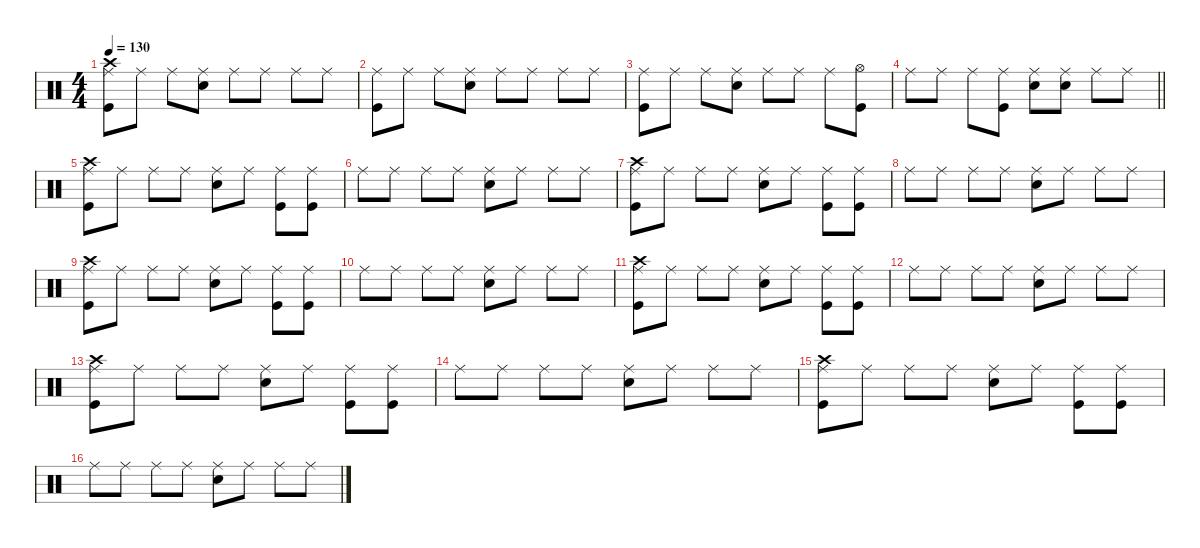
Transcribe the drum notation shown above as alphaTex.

\defaultSystemsLayout 4
\hideDynamics
\bracketExtendMode nobrackets
\singleTrackTrackNamePolicy hidden
\multiTrackTrackNamePolicy hidden
\firstSystemTrackNameMode fullname
\firstSystemTrackNameOrientation horizontal
\otherSystemsTrackNameOrientation horizontal
\track ("Percussion" "drm.") {defaultSystemsLayout 4 instrument percussion}
\staff {score}
\articulation defaults
\ts (4 4)
\tempo 130
\clef neutral
\ks c
("Crash high (hit)" "Ride (middle)" "Kick (hit)").8{dy f beam Down} "Ride (middle)".8{beam Down} "Ride (middle)".8{beam Down} ("Ride (middle)" "Snare (hit) 2").8{beam Down} "Ride (middle)".8{beam Down} "Ride (middle)".8{beam Down} "Ride (middle)".8{beam Down} "Ride (middle)".8{beam Down} |
("Ride (middle)" "Kick (hit)").8{beam Down} "Ride (middle)".8{beam Down} "Ride (middle)".8{beam Down} ("Ride (middle)" "Snare (hit) 2").8{beam Down} "Ride (middle)".8{beam Down} "Ride (middle)".8{beam Down} "Ride (middle)".8{beam Down} "Ride (middle)".8{beam Down} |
("Ride (middle)" "Kick (hit)").8{beam Down} "Ride (middle)".8{beam Down} "Ride (middle)".8{beam Down} ("Ride (middle)" "Snare (hit) 2").8{beam Down} "Ride (middle)".8{beam Down} "Ride (middle)".8{beam Down} "Ride (middle)".8{beam Down} ("Kick (hit)" "Hi-Hat (open)").8{beam Down} |
\barLineRight lightlight "Ride (middle)".8{dy mf beam Down} "Ride (middle)".8{dy f beam Down} "Ride (middle)".8{beam Down}
("Ride (middle)" "Kick (hit)").8{beam Down} ("Ride (middle)" "Snare (hit) 2").8{beam Down} ("Ride (middle)" "Snare (hit) 2").8{beam Down} "Ride (middle)".8{beam Down} "Ride (middle)".8{beam Down} |
("Crash high (hit)" "Ride (middle)" "Kick (hit)").8{beam Down} "Ride (middle)".8{beam Down} "Ride (middle)".8{beam Down} "Ride (middle)".8{beam Down} ("Ride (middle)" "Snare (hit) 2").8{beam Down} "Ride (middle)".8{beam Down} ("Ride (middle)" "Kick (hit)").8{beam Down} ("Ride (middle)" "Kick (hit)").8{beam Down} |
"Ride (middle)".8{beam Down} "Ride (middle)".8{beam Down} "Ride (middle)".8{beam Down} "Ride (middle)".8{beam Down} ("Ride (middle)" "Snare (hit) 2").8{beam Down} "Ride (middle)".8{beam Down} "Ride (middle)".8{beam Down} "Ride (middle)".8{beam Down} |
("Crash high (hit)" "Ride (middle)" "Kick (hit)").8{beam Down} "Ride (middle)".8{beam Down} "Ride (middle)".8{beam Down} "Ride (middle)".8{beam Down} ("Ride (middle)" "Snare (hit) 2").8{beam Down} "Ride (middle)".8{beam Down} ("Ride (middle)" "Kick (hit)").8{beam Down} ("Ride (middle)" "Kick (hit)").8{beam Down} |
"Ride (middle)".8{beam Down} "Ride (middle)".8{beam Down} "Ride (middle)".8{beam Down} "Ride (middle)".8{beam Down} ("Ride (middle)" "Snare (hit) 2").8{beam Down} "Ride (middle)".8{beam Down} "Ride (middle)".8{beam Down} "Ride (middle)".8{beam Down} |
("Crash high (hit)" "Ride (middle)" "Kick (hit)").8{beam Down} "Ride (middle)".8{beam Down} "Ride (middle)".8{beam Down} "Ride (middle)".8{beam Down} ("Ride (middle)" "Snare (hit) 2").8{beam Down} "Ride (middle)".8{beam Down} ("Ride (middle)" "Kick (hit)").8{beam Down} ("Ride (middle)" "Kick (hit)").8{beam Down} |
"Ride (middle)".8{beam Down} "Ride (middle)".8{beam Down} "Ride (middle)".8{beam Down} "Ride (middle)".8{beam Down} ("Ride (middle)" "Snare (hit) 2").8{beam Down} "Ride (middle)".8{beam Down} "Ride (middle)".8{beam Down} "Ride (middle)".8{beam Down} |
("Crash high (hit)" "Ride (middle)" "Kick (hit)").8{beam Down} "Ride (middle)".8{beam Down} "Ride (middle)".8{beam Down} "Ride (middle)".8{beam Down} ("Ride (middle)" "Snare (hit) 2").8{beam Down} "Ride (middle)".8{beam Down} ("Ride (middle)" "Kick (hit)").8{beam Down} ("Ride (middle)" "Kick (hit)").8{beam Down} |
"Ride (middle)".8{beam Down} "Ride (middle)".8{beam Down} "Ride (middle)".8{beam Down} "Ride (middle)".8{beam Down} ("Ride (middle)" "Snare (hit) 2").8{beam Down} "Ride (middle)".8{beam Down} "Ride (middle)".8{beam Down} "Ride (middle)".8{beam Down} |
("Crash high (hit)" "Ride (middle)" "Kick (hit)").8{beam Down} "Ride (middle)".8{beam Down} "Ride (middle)".8{beam Down} "Ride (middle)".8{beam Down} ("Ride (middle)" "Snare (hit) 2").8{beam Down} "Ride (middle)".8{beam Down} ("Ride (middle)" "Kick (hit)").8{beam Down} ("Ride (middle)" "Kick (hit)").8{beam Down} |
"Ride (middle)".8{beam Down} "Ride (middle)".8{beam Down} "Ride (middle)".8{beam Down} "Ride (middle)".8{beam Down} ("Ride (middle)" "Snare (hit) 2").8{beam Down} "Ride (middle)".8{beam Down} "Ride (middle)".8{beam Down} "Ride (middle)".8{beam Down} |
("Crash high (hit)" "Ride (middle)" "Kick (hit)").8{beam Down} "Ride (middle)".8{beam Down} "Ride (middle)".8{beam Down} "Ride (middle)".8{beam Down} ("Ride (middle)" "Snare (hit) 2").8{beam Down} "Ride (middle)".8{beam Down} ("Ride (middle)" "Kick (hit)").8{beam Down} ("Ride (middle)" "Kick (hit)").8{beam Down} |
"Ride (middle)".8{beam Down} "Ride (middle)".8{beam Down} "Ride (middle)".8{beam Down} "Ride (middle)".8{beam Down} ("Ride (middle)" "Snare (hit) 2").8{beam Down} "Ride (middle)".8{beam Down} "Ride (middle)".8{beam Down} "Ride (middle)".8{beam Down}
